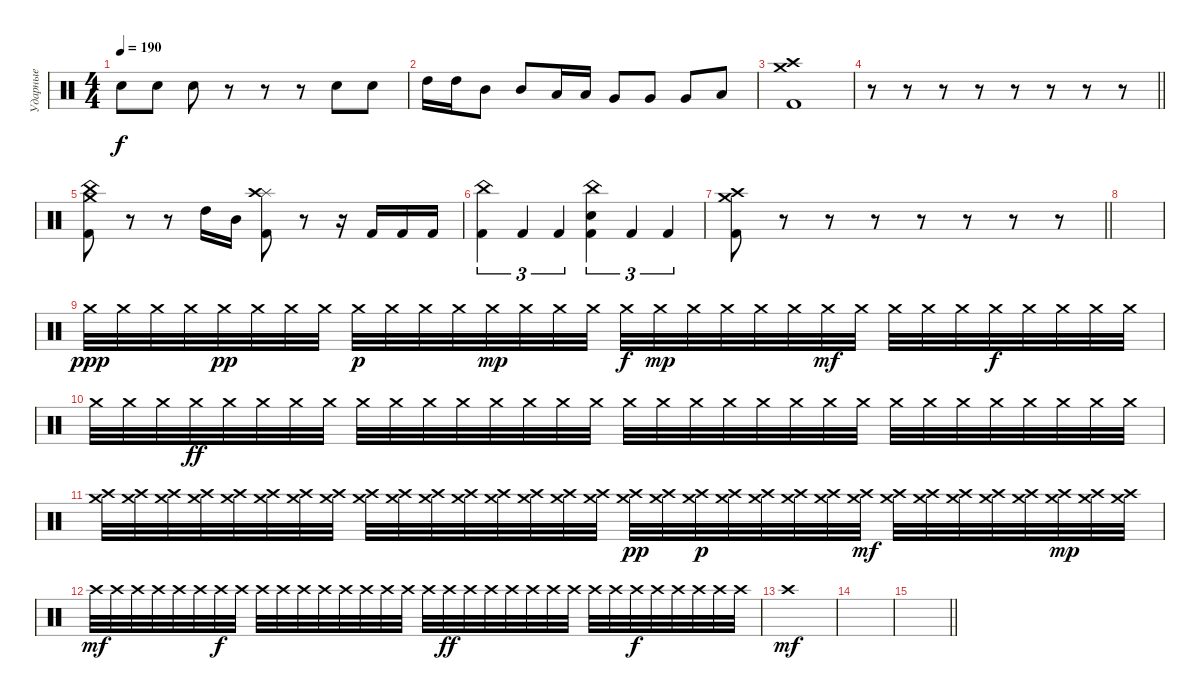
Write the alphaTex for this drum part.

\track ("Ударные" "Ударные") {instrument percussion}
\staff {score}
\articulation defaults
\ts (4 4)
\tempo 190
\clef neutral
\ks c "Electric Snare (hit)".8{dy f} "Electric Snare (hit)".8 "Electric Snare (hit)".8
r.8 r.8 r.8 "Electric Snare (hit)".8 "Electric Snare (hit)".8 |
"High Tom (hit)".16 "High Tom (hit)".16 "Mid Tom (hit)".8 "Mid Tom (hit)".8 "Low Tom (hit)".16 "Low Tom (hit)".16 "Very Low Tom (hit)".8 "Very Low Tom (hit)".8 "Very Low Tom (hit)".8 "Low Floor Tom (hit)".8 |
("Kick (hit) 2" "Crash medium (hit)" "Crash high (hit)").1 |
\barLineRight lightlight
r.8 r.8 r.8 r.8 r.8 r.8 r.8 r.8 |
("Crash medium (hit)" "China (hit)" "Kick (hit) 2").8 r.8 r.8 "High Tom (hit)".16 "Mid Tom (hit)".16 ("Splash (hit)" "Crash high (hit)" "Kick (hit) 2").8 r.8 r.16 "Kick (hit) 2".16 "Kick (hit) 2".16 "Kick (hit) 2".16 |
("China (hit)" "Kick (hit) 2").4{tu (3 2)} "Kick (hit) 2".4{tu (3 2)} "Kick (hit) 2".4{tu (3 2)} ("Electric Snare (hit)" "China (hit)" "Kick (hit) 2").4{tu (3 2)} "Kick (hit) 2".4{tu (3 2)} "Kick (hit) 2".4{tu (3 2)} |
\barLineRight lightlight
("Crash medium (hit)" "Crash high (hit)" "Kick (hit) 2").8 r.8 r.8 r.8 r.8 r.8 r.8 r.8 |
|
"Crash medium (hit)".32{dy ppp} "Crash medium (hit)".32 "Crash medium (hit)".32 "Crash medium (hit)".32 "Crash medium (hit)".32{dy pp} "Crash medium (hit)".32 "Crash medium (hit)".32 "Crash medium (hit)".32 "Crash medium (hit)".32{dy p} "Crash medium (hit)".32 "Crash medium (hit)".32 "Crash medium (hit)".32 "Crash medium (hit)".32{dy mp} "Crash medium (hit)".32 "Crash medium (hit)".32 "Crash medium (hit)".32 "Crash medium (hit)".32{dy f} "Crash medium (hit)".32{dy mp} "Crash medium (hit)".32 "Crash medium (hit)".32 "Crash medium (hit)".32 "Crash medium (hit)".32 "Crash medium (hit)".32{dy mf} "Crash medium (hit)".32 "Crash medium (hit)".32 "Crash medium (hit)".32 "Crash medium (hit)".32 "Crash medium (hit)".32{dy f} "Crash medium (hit)".32 "Crash medium (hit)".32 "Crash medium (hit)".32 "Crash medium (hit)".32 |
"Crash medium (hit)".32 "Crash medium (hit)".32 "Crash medium (hit)".32 "Crash medium (hit)".32{dy ff} "Crash medium (hit)".32 "Crash medium (hit)".32 "Crash medium (hit)".32 "Crash medium (hit)".32 "Crash medium (hit)".32 "Crash medium (hit)".32 "Crash medium (hit)".32 "Crash medium (hit)".32 "Crash medium (hit)".32 "Crash medium (hit)".32 "Crash medium (hit)".32 "Crash medium (hit)".32 "Crash medium (hit)".32 "Crash medium (hit)".32 "Crash medium (hit)".32 "Crash medium (hit)".32 "Crash medium (hit)".32 "Crash medium (hit)".32 "Crash medium (hit)".32 "Crash medium (hit)".32 "Crash medium (hit)".32 "Crash medium (hit)".32 "Crash medium (hit)".32 "Crash medium (hit)".32 "Crash medium (hit)".32 "Crash medium (hit)".32 "Crash medium (hit)".32 "Crash medium (hit)".32 |
("Crash high (hit)" "Crash medium (hit)").32 ("Crash high (hit)" "Crash medium (hit)").32 ("Crash high (hit)" "Crash medium (hit)").32 ("Crash high (hit)" "Crash medium (hit)").32 ("Crash high (hit)" "Crash medium (hit)").32 ("Crash high (hit)" "Crash medium (hit)").32 ("Crash high (hit)" "Crash medium (hit)").32 ("Crash high (hit)" "Crash medium (hit)").32 ("Crash high (hit)" "Crash medium (hit)").32 ("Crash high (hit)" "Crash medium (hit)").32 ("Crash high (hit)" "Crash medium (hit)").32 ("Crash high (hit)" "Crash medium (hit)").32 ("Crash high (hit)" "Crash medium (hit)").32 ("Crash high (hit)" "Crash medium (hit)").32 ("Crash high (hit)" "Crash medium (hit)").32 ("Crash high (hit)" "Crash medium (hit)").32 ("Crash high (hit)" "Crash medium (hit)").32{dy pp} ("Crash high (hit)" "Crash medium (hit)").32 ("Crash high (hit)" "Crash medium (hit)").32{dy p} ("Crash high (hit)" "Crash medium (hit)").32 ("Crash high (hit)" "Crash medium (hit)").32 ("Crash high (hit)" "Crash medium (hit)").32 ("Crash high (hit)" "Crash medium (hit)").32 ("Crash high (hit)" "Crash medium (hit)").32{dy mf} ("Crash high (hit)" "Crash medium (hit)").32 ("Crash high (hit)" "Crash medium (hit)").32 ("Crash high (hit)" "Crash medium (hit)").32 ("Crash high (hit)" "Crash medium (hit)").32 ("Crash high (hit)" "Crash medium (hit)").32 ("Crash high (hit)" "Crash medium (hit)").32{dy mp} ("Crash high (hit)" "Crash medium (hit)").32 ("Crash high (hit)" "Crash medium (hit)").32 |
"Crash high (hit)".32{dy mf} "Crash high (hit)".32 "Crash high (hit)".32 "Crash high (hit)".32 "Crash high (hit)".32 "Crash high (hit)".32 "Crash high (hit)".32{dy f} "Crash high (hit)".32 "Crash high (hit)".32 "Crash high (hit)".32 "Crash high (hit)".32 "Crash high (hit)".32 "Crash high (hit)".32 "Crash high (hit)".32 "Crash high (hit)".32 "Crash high (hit)".32 "Crash high (hit)".32 "Crash high (hit)".32{dy ff} "Crash high (hit)".32 "Crash high (hit)".32 "Crash high (hit)".32 "Crash high (hit)".32 "Crash high (hit)".32 "Crash high (hit)".32 "Crash high (hit)".32 "Crash high (hit)".32 "Crash high (hit)".32{dy f} "Crash high (hit)".32 "Crash high (hit)".32 "Crash high (hit)".32 "Crash high (hit)".32 "Crash high (hit)".32 |
"Crash high (hit)".1{dy mf} |
|
\barLineRight lightlight
